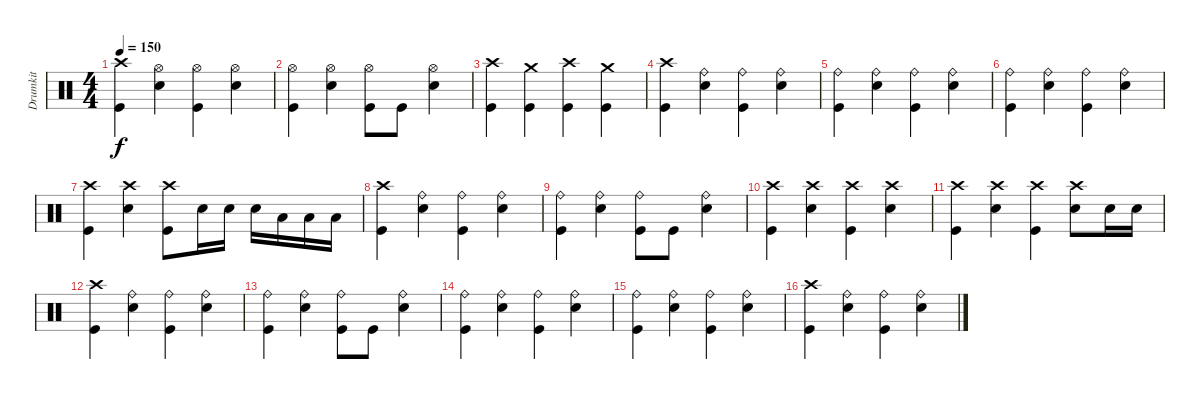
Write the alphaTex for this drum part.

\track ("Drumkit" "Drumkit") {instrument percussion}
\staff {score}
\articulation defaults
\ts (4 4)
\tempo 150
\clef neutral
\ks c
("Crash high (hit)" "Kick (hit)").4{dy f} ("Hi-Hat (open)" "Snare (hit) 2").4 ("Hi-Hat (open)" "Kick (hit)").4 ("Hi-Hat (open)" "Snare (hit) 2").4 |
("Hi-Hat (open)" "Kick (hit)").4 ("Hi-Hat (open)" "Snare (hit) 2").4 ("Hi-Hat (open)" "Kick (hit)").8 "Kick (hit)".8 ("Hi-Hat (open)" "Snare (hit) 2").4 |
("Crash high (hit)" "Kick (hit)").4 ("Crash medium (hit)" "Kick (hit)").4 ("Crash high (hit)" "Kick (hit)").4 ("Crash medium (hit)" "Kick (hit)").4 |
("Crash high (hit)" "Kick (hit)").4 ("Ride (bell)" "Snare (hit) 2").4 ("Ride (bell)" "Kick (hit)").4 ("Ride (bell)" "Snare (hit) 2").4 |
("Ride (bell)" "Kick (hit)").4 ("Ride (bell)" "Snare (hit) 2").4 ("Ride (bell)" "Kick (hit)").4 ("Ride (bell)" "Snare (hit) 2").4 |
("Ride (bell)" "Kick (hit)").4 ("Ride (bell)" "Snare (hit) 2").4 ("Ride (bell)" "Kick (hit)").4 ("Ride (bell)" "Snare (hit) 2").4 |
("Crash high (hit)" "Kick (hit)").4 ("Crash high (hit)" "Snare (hit) 2").4 ("Crash high (hit)" "Kick (hit)").8 "Snare (hit) 2".16 "Snare (hit) 2".16 "Snare (hit) 2".16 "Low Tom (hit)".16 "Low Tom (hit)".16 "Low Tom (hit)".16 |
("Crash high (hit)" "Kick (hit)").4 ("Ride (bell)" "Snare (hit) 2").4 ("Ride (bell)" "Kick (hit)").4 ("Ride (bell)" "Snare (hit) 2").4 |
("Ride (bell)" "Kick (hit)").4 ("Ride (bell)" "Snare (hit) 2").4 ("Ride (bell)" "Kick (hit)").8 "Kick (hit)".8 ("Ride (bell)" "Snare (hit) 2").4 |
("Crash high (hit)" "Kick (hit)").4 ("Crash high (hit)" "Snare (hit) 2").4 ("Crash high (hit)" "Kick (hit)").4 ("Crash high (hit)" "Snare (hit) 2").4 |
("Crash high (hit)" "Kick (hit)").4 ("Crash high (hit)" "Snare (hit) 2").4 ("Crash high (hit)" "Kick (hit)").4 ("Crash high (hit)" "Snare (hit) 2").8 "Snare (hit) 2".16 "Snare (hit) 2".16 |
("Crash high (hit)" "Kick (hit)").4 ("Ride (bell)" "Snare (hit) 2").4 ("Ride (bell)" "Kick (hit)").4 ("Ride (bell)" "Snare (hit) 2").4 |
("Ride (bell)" "Kick (hit)").4 ("Ride (bell)" "Snare (hit) 2").4 ("Ride (bell)" "Kick (hit)").8 "Kick (hit)".8 ("Ride (bell)" "Snare (hit) 2").4 |
("Ride (bell)" "Kick (hit)").4 ("Ride (bell)" "Snare (hit) 2").4 ("Ride (bell)" "Kick (hit)").4 ("Ride (bell)" "Snare (hit) 2").4 |
("Ride (bell)" "Kick (hit)").4 ("Ride (bell)" "Snare (hit) 2").4 ("Ride (bell)" "Kick (hit)").4 ("Ride (bell)" "Snare (hit) 2").4 |
("Crash high (hit)" "Kick (hit)").4 ("Ride (bell)" "Snare (hit) 2").4 ("Ride (bell)" "Kick (hit)").4 ("Ride (bell)" "Snare (hit) 2").4
